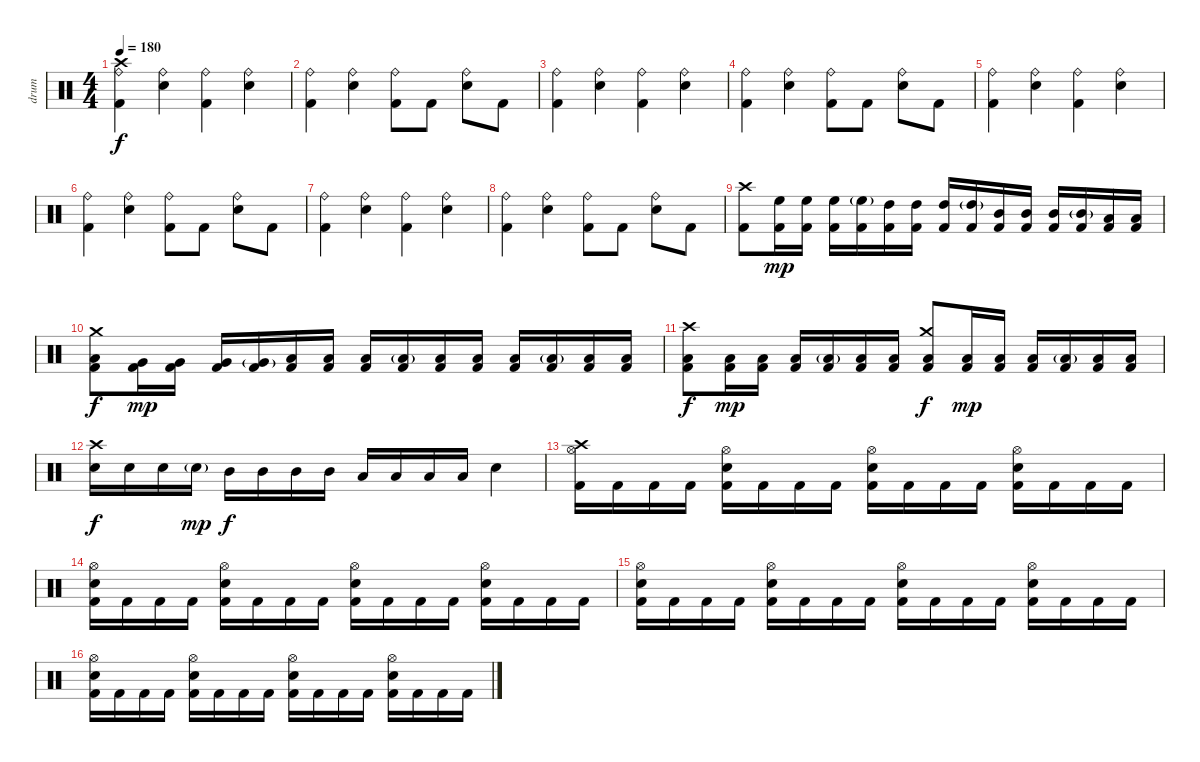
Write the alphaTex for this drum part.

\track ("drum" "drum") {instrument percussion}
\staff {score}
\articulation defaults
\ts (4 4)
\tempo 180
\clef neutral
\ks c
("Crash high (hit)" "Ride (bell)" "Kick (hit) 2").4{dy f} ("Ride (bell)" "Electric Snare (hit)").4 ("Ride (bell)" "Kick (hit) 2").4 ("Ride (bell)" "Electric Snare (hit)").4 |
("Ride (bell)" "Kick (hit) 2").4 ("Ride (bell)" "Electric Snare (hit)").4 ("Ride (bell)" "Kick (hit) 2").8 "Kick (hit) 2".8 ("Ride (bell)" "Electric Snare (hit)").8 "Kick (hit) 2".8 |
("Ride (bell)" "Kick (hit) 2").4 ("Ride (bell)" "Electric Snare (hit)").4 ("Ride (bell)" "Kick (hit) 2").4 ("Ride (bell)" "Electric Snare (hit)").4 |
("Ride (bell)" "Kick (hit) 2").4 ("Ride (bell)" "Electric Snare (hit)").4 ("Ride (bell)" "Kick (hit) 2").8 "Kick (hit) 2".8 ("Ride (bell)" "Electric Snare (hit)").8 "Kick (hit) 2".8 |
("Ride (bell)" "Kick (hit) 2").4 ("Ride (bell)" "Electric Snare (hit)").4 ("Ride (bell)" "Kick (hit) 2").4 ("Ride (bell)" "Electric Snare (hit)").4 |
("Ride (bell)" "Kick (hit) 2").4 ("Ride (bell)" "Electric Snare (hit)").4 ("Ride (bell)" "Kick (hit) 2").8 "Kick (hit) 2".8 ("Ride (bell)" "Electric Snare (hit)").8 "Kick (hit) 2".8 |
("Ride (bell)" "Kick (hit) 2").4 ("Ride (bell)" "Electric Snare (hit)").4 ("Ride (bell)" "Kick (hit) 2").4 ("Ride (bell)" "Electric Snare (hit)").4 |
("Ride (bell)" "Kick (hit) 2").4 ("Ride (bell)" "Electric Snare (hit)").4 ("Ride (bell)" "Kick (hit) 2").8 "Kick (hit) 2".8 ("Ride (bell)" "Electric Snare (hit)").8 "Kick (hit) 2".8 |
("Crash high (hit)" "Kick (hit) 2").8 ("High Floor Tom (hit)" "Kick (hit) 2").16{dy mp} ("High Floor Tom (hit)" "Kick (hit) 2").16 ("High Floor Tom (hit)" "Kick (hit) 2").16 ("High Floor Tom (hit)"{g} "Kick (hit) 2").16 ("High Tom (hit)" "Kick (hit) 2").16 ("High Tom (hit)" "Kick (hit) 2").16 ("High Tom (hit)" "Kick (hit) 2").16 ("High Tom (hit)"{g} "Kick (hit) 2").16 ("Mid Tom (hit)" "Kick (hit) 2").16 ("Mid Tom (hit)" "Kick (hit) 2").16 ("Mid Tom (hit)" "Kick (hit) 2").16 ("Mid Tom (hit)"{g} "Kick (hit) 2").16 ("Low Tom (hit)" "Kick (hit) 2").16 ("Low Tom (hit)" "Kick (hit) 2").16 |
("Crash medium (hit)" "Low Tom (hit)" "Kick (hit) 2").8{dy f} ("Very Low Tom (hit)" "Kick (hit) 2").16{dy mp} ("Very Low Tom (hit)" "Kick (hit) 2").16 ("Very Low Tom (hit)" "Kick (hit) 2").16 ("Very Low Tom (hit)"{g} "Kick (hit) 2").16 ("Low Floor Tom (hit)" "Kick (hit) 2").16 ("Low Floor Tom (hit)" "Kick (hit) 2").16 ("Low Floor Tom (hit)" "Kick (hit) 2").16 ("Low Floor Tom (hit)"{g} "Kick (hit) 2").16 ("Low Floor Tom (hit)" "Kick (hit) 2").16 ("Low Floor Tom (hit)" "Kick (hit) 2").16 ("Low Floor Tom (hit)" "Kick (hit) 2").16 ("Low Floor Tom (hit)"{g} "Kick (hit) 2").16 ("Low Floor Tom (hit)" "Kick (hit) 2").16 ("Low Floor Tom (hit)" "Kick (hit) 2").16 |
("Crash high (hit)" "Low Floor Tom (hit)" "Kick (hit) 2").8{dy f} ("Low Floor Tom (hit)" "Kick (hit) 2").16{dy mp} ("Low Floor Tom (hit)" "Kick (hit) 2").16 ("Low Floor Tom (hit)" "Kick (hit) 2").16 ("Low Floor Tom (hit)"{g} "Kick (hit) 2").16 ("Low Floor Tom (hit)" "Kick (hit) 2").16 ("Low Floor Tom (hit)" "Kick (hit) 2").16 ("Crash medium (hit)" "Low Floor Tom (hit)" "Kick (hit) 2").8{dy f} ("Low Floor Tom (hit)" "Kick (hit) 2").16{dy mp} ("Low Floor Tom (hit)" "Kick (hit) 2").16 ("Low Floor Tom (hit)" "Kick (hit) 2").16 ("Low Floor Tom (hit)"{g} "Kick (hit) 2").16 ("Low Floor Tom (hit)" "Kick (hit) 2").16 ("Low Floor Tom (hit)" "Kick (hit) 2").16 |
("Crash high (hit)" "Electric Snare (hit)").16{dy f} "Electric Snare (hit)".16 "Electric Snare (hit)".16 "Electric Snare (hit)"{g}.16{dy mp} "Mid Tom (hit)".16{dy f} "Mid Tom (hit)".16 "Mid Tom (hit)".16 "Mid Tom (hit)".16 "Low Tom (hit)".16 "Low Tom (hit)".16 "Low Tom (hit)".16 "Low Tom (hit)".16 "Electric Snare (hit)".4 |
("Hi-Hat (open)" "Crash high (hit)" "Kick (hit) 2").16 "Kick (hit) 2".16 "Kick (hit) 2".16 "Kick (hit) 2".16 ("Hi-Hat (open)" "Electric Snare (hit)" "Kick (hit) 2").16 "Kick (hit) 2".16 "Kick (hit) 2".16 "Kick (hit) 2".16 ("Hi-Hat (open)" "Electric Snare (hit)" "Kick (hit) 2").16 "Kick (hit) 2".16 "Kick (hit) 2".16 "Kick (hit) 2".16 ("Hi-Hat (open)" "Electric Snare (hit)" "Kick (hit) 2").16 "Kick (hit) 2".16 "Kick (hit) 2".16 "Kick (hit) 2".16 |
("Hi-Hat (open)" "Electric Snare (hit)" "Kick (hit) 2").16 "Kick (hit) 2".16 "Kick (hit) 2".16 "Kick (hit) 2".16 ("Hi-Hat (open)" "Electric Snare (hit)" "Kick (hit) 2").16 "Kick (hit) 2".16 "Kick (hit) 2".16 "Kick (hit) 2".16 ("Hi-Hat (open)" "Electric Snare (hit)" "Kick (hit) 2").16 "Kick (hit) 2".16 "Kick (hit) 2".16 "Kick (hit) 2".16 ("Hi-Hat (open)" "Electric Snare (hit)" "Kick (hit) 2").16 "Kick (hit) 2".16 "Kick (hit) 2".16 "Kick (hit) 2".16 |
("Hi-Hat (open)" "Electric Snare (hit)" "Kick (hit) 2").16 "Kick (hit) 2".16 "Kick (hit) 2".16 "Kick (hit) 2".16 ("Hi-Hat (open)" "Electric Snare (hit)" "Kick (hit) 2").16 "Kick (hit) 2".16 "Kick (hit) 2".16 "Kick (hit) 2".16 ("Hi-Hat (open)" "Electric Snare (hit)" "Kick (hit) 2").16 "Kick (hit) 2".16 "Kick (hit) 2".16 "Kick (hit) 2".16 ("Hi-Hat (open)" "Electric Snare (hit)" "Kick (hit) 2").16 "Kick (hit) 2".16 "Kick (hit) 2".16 "Kick (hit) 2".16 |
("Hi-Hat (open)" "Electric Snare (hit)" "Kick (hit) 2").16 "Kick (hit) 2".16 "Kick (hit) 2".16 "Kick (hit) 2".16 ("Hi-Hat (open)" "Electric Snare (hit)" "Kick (hit) 2").16 "Kick (hit) 2".16 "Kick (hit) 2".16 "Kick (hit) 2".16 ("Hi-Hat (open)" "Electric Snare (hit)" "Kick (hit) 2").16 "Kick (hit) 2".16 "Kick (hit) 2".16 "Kick (hit) 2".16 ("Hi-Hat (open)" "Electric Snare (hit)" "Kick (hit) 2").16 "Kick (hit) 2".16 "Kick (hit) 2".16 "Kick (hit) 2".16
